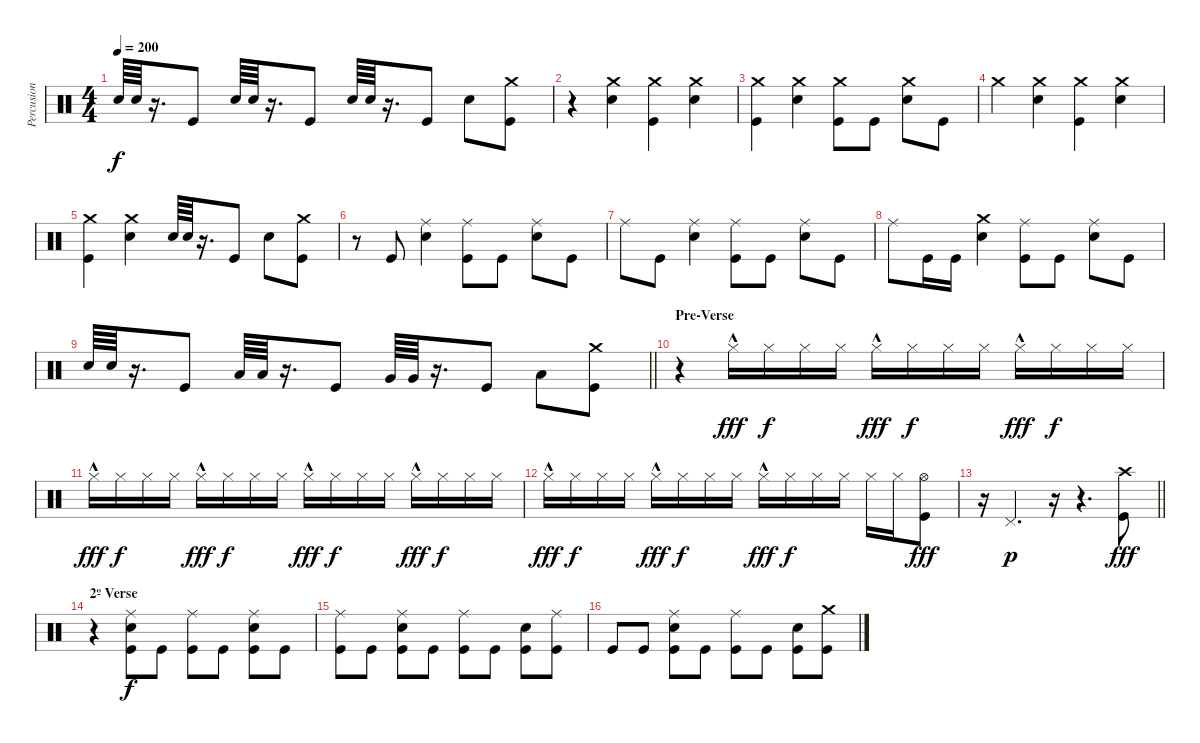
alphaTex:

\track ("Percusion" "Percusion") {instrument percussion}
\staff {score}
\articulation defaults
\ts (4 4)
\tempo 200
\clef neutral
\ks c "Snare (hit) 2".64{dy f} "Snare (hit) 2".64
r.16{d} "Kick (hit)".8 "Snare (hit) 2".64 "Snare (hit) 2".64 r.16{d} "Kick (hit)".8 "Snare (hit) 2".64 "Snare (hit) 2".64 r.16{d} "Kick (hit)".8 "Snare (hit) 2".8 ("Crash medium (hit)" "Kick (hit)").8 |
r.4 ("Crash medium (hit)" "Snare (hit) 2").4 ("Crash medium (hit)" "Kick (hit)").4 ("Crash medium (hit)" "Snare (hit) 2").4 |
("Crash medium (hit)" "Kick (hit)").4 ("Snare (hit) 2" "Crash medium (hit)").4 ("Kick (hit)" "Crash medium (hit)").8 "Kick (hit)".8 ("Snare (hit) 2" "Crash medium (hit)").8 "Kick (hit)".8 |
"Crash medium (hit)".4 ("Snare (hit) 2" "Crash medium (hit)").4 ("Crash medium (hit)" "Kick (hit)").4 ("Snare (hit) 2" "Crash medium (hit)").4 |
("Crash medium (hit)" "Kick (hit)").4 ("Snare (hit) 2" "Crash medium (hit)").4 "Snare (hit) 2".64 "Snare (hit) 2".64 r.16{d} "Kick (hit)".8 "Snare (hit) 2".8 ("Crash medium (hit)" "Kick (hit)").8 |
r.8 "Kick (hit)".8 ("Ride (middle)" "Snare (hit) 2").4 ("Ride (middle)" "Kick (hit)").8 "Kick (hit)".8 ("Ride (middle)" "Snare (hit) 2").8 "Kick (hit)".8 |
"Ride (middle)".8 "Kick (hit)".8 ("Snare (hit) 2" "Ride (middle)").4 ("Ride (middle)" "Kick (hit)").8 "Kick (hit)".8 ("Ride (middle)" "Snare (hit) 2").8 "Kick (hit)".8 |
"Ride (middle)".8 "Kick (hit)".16 "Kick (hit)".16 ("Snare (hit) 2" "Crash medium (hit)").4 ("Ride (middle)" "Kick (hit)").8 "Kick (hit)".8 ("Snare (hit) 2" "Ride (middle)").8 "Kick (hit)".8 |
\barLineRight lightlight "Snare (hit) 2".64 "Snare (hit) 2".64
r.16{d} "Kick (hit)".8 "Low Tom (hit)".64 "Low Tom (hit)".64 r.16{d} "Kick (hit)".8 "Very Low Tom (hit)".64 "Very Low Tom (hit)".64 r.16{d} "Kick (hit)".8 "Low Floor Tom (hit)".8 ("Kick (hit)" "Crash medium (hit)").8 |
\section ("" "Pre-Verse")
r.4 "Hi-Hat (closed)"{hac}.16{dy fff} "Hi-Hat (closed)".16{dy f} "Hi-Hat (closed)".16 "Hi-Hat (closed)".16 "Hi-Hat (closed)"{hac}.16{dy fff} "Hi-Hat (closed)".16{dy f} "Hi-Hat (closed)".16 "Hi-Hat (closed)".16 "Hi-Hat (closed)"{hac}.16{dy fff} "Hi-Hat (closed)".16{dy f} "Hi-Hat (closed)".16 "Hi-Hat (closed)".16 |
"Hi-Hat (closed)"{hac}.16{dy fff} "Hi-Hat (closed)".16{dy f} "Hi-Hat (closed)".16 "Hi-Hat (closed)".16 "Hi-Hat (closed)"{hac}.16{dy fff} "Hi-Hat (closed)".16{dy f} "Hi-Hat (closed)".16 "Hi-Hat (closed)".16 "Hi-Hat (closed)"{hac}.16{dy fff} "Hi-Hat (closed)".16{dy f} "Hi-Hat (closed)".16 "Hi-Hat (closed)".16 "Hi-Hat (closed)"{hac}.16{dy fff} "Hi-Hat (closed)".16{dy f} "Hi-Hat (closed)".16 "Hi-Hat (closed)".16 |
"Hi-Hat (closed)"{hac}.16{dy fff} "Hi-Hat (closed)".16{dy f} "Hi-Hat (closed)".16 "Hi-Hat (closed)".16 "Hi-Hat (closed)"{hac}.16{dy fff} "Hi-Hat (closed)".16{dy f} "Hi-Hat (closed)".16 "Hi-Hat (closed)".16 "Hi-Hat (closed)"{hac}.16{dy fff} "Hi-Hat (closed)".16{dy f} "Hi-Hat (closed)".16 "Hi-Hat (closed)".16 "Hi-Hat (closed)".16 "Hi-Hat (closed)".16 ("Hi-Hat (open)" "Kick (hit)").8{dy fff} |
\barLineRight lightlight
r.16 "Pedal Hi-Hat (hit)".4{d dy p} r.16 r.4{d} ("Crash high (hit)" "Kick (hit)").8{dy fff} |
\section ("" "2º Verse")
r.4 ("Snare (hit) 2" "Ride (middle)" "Kick (hit)").8{dy f} "Kick (hit)".8 ("Ride (middle)" "Kick (hit)").8 "Kick (hit)".8 ("Kick (hit)" "Snare (hit) 2" "Ride (middle)").8 "Kick (hit)".8 |
("Kick (hit)" "Ride (middle)").8 "Kick (hit)".8 ("Kick (hit)" "Snare (hit) 2" "Ride (middle)").8 "Kick (hit)".8 ("Kick (hit)" "Ride (middle)").8 "Kick (hit)".8 ("Kick (hit)" "Snare (hit) 2").8 ("Kick (hit)" "Ride (middle)").8 |
"Kick (hit)".8 "Kick (hit)".8 ("Kick (hit)" "Ride (middle)" "Snare (hit) 2").8 "Kick (hit)".8 ("Ride (middle)" "Kick (hit)").8 "Kick (hit)".8 ("Kick (hit)" "Snare (hit) 2").8 ("Crash medium (hit)" "Kick (hit)").8
